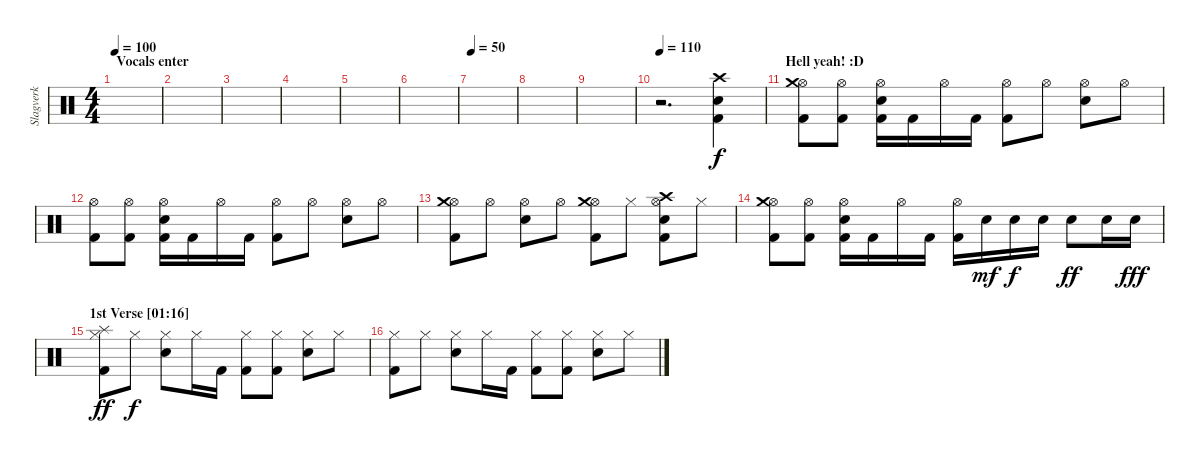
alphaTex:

\track ("Slagverk" "Slagverk") {instrument percussion}
\staff {score}
\articulation defaults
\ts (4 4)
\section ("" "Vocals enter")
\tempo 100
\clef neutral
\ks c
|
|
|
|
|
|
\tempo 50
|
|
|
\tempo 110
r.2{d} ("Crash high (hit)" "Electric Snare (hit)" "Kick (hit) 2").4 |
\section ("" "Hell yeah! :D")
("Hi-Hat (open)" "Crash medium (hit)" "Kick (hit) 2").8 ("Hi-Hat (open)" "Kick (hit) 2").8 ("Hi-Hat (open)" "Electric Snare (hit)" "Kick (hit) 2").16 "Kick (hit) 2".16 "Hi-Hat (open)".16 "Kick (hit) 2".16 ("Hi-Hat (open)" "Kick (hit) 2").8 "Hi-Hat (open)".8 ("Hi-Hat (open)" "Electric Snare (hit)").8 "Hi-Hat (open)".8 |
("Hi-Hat (open)" "Kick (hit) 2").8 ("Hi-Hat (open)" "Kick (hit) 2").8 ("Hi-Hat (open)" "Electric Snare (hit)" "Kick (hit) 2").16 "Kick (hit) 2".16 "Hi-Hat (open)".16 "Kick (hit) 2".16 ("Hi-Hat (open)" "Kick (hit) 2").8 "Hi-Hat (open)".8 ("Hi-Hat (open)" "Electric Snare (hit)").8 "Hi-Hat (open)".8 |
("Hi-Hat (open)" "Crash medium (hit)" "Kick (hit) 2").8 "Hi-Hat (open)".8 ("Hi-Hat (open)" "Electric Snare (hit)").8 "Hi-Hat (open)".8 ("Hi-Hat (open)" "Crash medium (hit)" "Kick (hit) 2").8 "Hi-Hat (closed)".8 ("Hi-Hat (open)" "Crash high (hit)" "Electric Snare (hit)" "Kick (hit) 2").8 "Hi-Hat (closed)".8 |
("Hi-Hat (open)" "Crash medium (hit)" "Kick (hit) 2").8 ("Hi-Hat (open)" "Kick (hit) 2").8 ("Hi-Hat (open)" "Electric Snare (hit)" "Kick (hit) 2").16 "Kick (hit) 2".16 "Hi-Hat (open)".16 "Kick (hit) 2".16 ("Hi-Hat (open)" "Kick (hit) 2").16 "Electric Snare (hit)".16{dy mf} "Electric Snare (hit)".16{dy f} "Electric Snare (hit)".16 "Electric Snare (hit)".8{dy ff} "Electric Snare (hit)".16 "Electric Snare (hit)".16{dy fff} |
\section ("" "1st Verse [01:16]")
("Hi-Hat (closed)" "Splash (hit)" "Kick (hit) 2").8{dy ff} "Hi-Hat (closed)".8{dy f} ("Hi-Hat (closed)" "Electric Snare (hit)").8 "Hi-Hat (closed)".16 "Kick (hit) 2".16 ("Hi-Hat (closed)" "Kick (hit) 2").8 ("Hi-Hat (closed)" "Kick (hit) 2").8 ("Hi-Hat (closed)" "Electric Snare (hit)").8 "Hi-Hat (closed)".8 |
("Hi-Hat (closed)" "Kick (hit) 2").8 "Hi-Hat (closed)".8 ("Hi-Hat (closed)" "Electric Snare (hit)").8 "Hi-Hat (closed)".16 "Kick (hit) 2".16 ("Hi-Hat (closed)" "Kick (hit) 2").8 ("Hi-Hat (closed)" "Kick (hit) 2").8 ("Hi-Hat (closed)" "Electric Snare (hit)").8 "Hi-Hat (closed)".8
